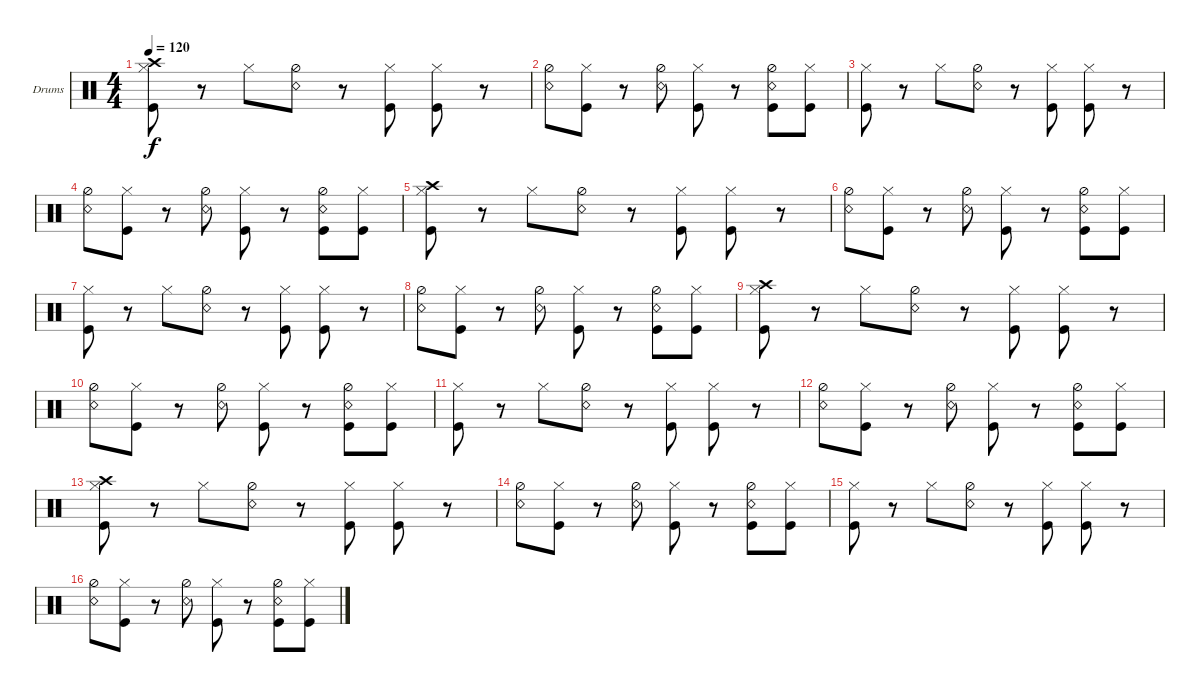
\defaultSystemsLayout 4
\bracketExtendMode groupsimilarinstruments
\firstSystemTrackNameOrientation horizontal
\otherSystemsTrackNameOrientation horizontal
\track ("Drumkit" "Drums") {instrument percussion}
\staff {score}
\articulation defaults
\ts (4 4)
\tempo 120
\clef neutral
\ks c
("Hi-Hat (closed)" "Kick (hit)" "Crash high (hit)").8{dy f} r.8 "Hi-Hat (closed)".8 ("Hi-Hat (half)" "Snare (rim shot)").8 r.8 ("Hi-Hat (closed)" "Kick (hit)").8 ("Hi-Hat (closed)" "Kick (hit)").8 r.8 |
("Hi-Hat (half)" "Snare (rim shot)").8 ("Hi-Hat (closed)" "Kick (hit)").8 r.8 ("Hi-Hat (half)" "Snare (rim shot)").8 ("Hi-Hat (closed)" "Kick (hit)").8 r.8 ("Hi-Hat (half)" "Snare (rim shot)" "Kick (hit)").8 ("Hi-Hat (closed)" "Kick (hit)").8 |
("Hi-Hat (closed)" "Kick (hit)").8 r.8 "Hi-Hat (closed)".8 ("Hi-Hat (half)" "Snare (rim shot)").8 r.8 ("Hi-Hat (closed)" "Kick (hit)").8 ("Hi-Hat (closed)" "Kick (hit)").8 r.8 |
("Hi-Hat (half)" "Snare (rim shot)").8 ("Hi-Hat (closed)" "Kick (hit)").8 r.8 ("Hi-Hat (half)" "Snare (rim shot)").8 ("Hi-Hat (closed)" "Kick (hit)").8 r.8 ("Hi-Hat (half)" "Snare (rim shot)" "Kick (hit)").8 ("Hi-Hat (closed)" "Kick (hit)").8 |
("Hi-Hat (closed)" "Kick (hit)" "Crash high (hit)").8 r.8 "Hi-Hat (closed)".8 ("Hi-Hat (half)" "Snare (rim shot)").8 r.8 ("Hi-Hat (closed)" "Kick (hit)").8 ("Hi-Hat (closed)" "Kick (hit)").8 r.8 |
("Hi-Hat (half)" "Snare (rim shot)").8 ("Hi-Hat (closed)" "Kick (hit)").8 r.8 ("Hi-Hat (half)" "Snare (rim shot)").8 ("Hi-Hat (closed)" "Kick (hit)").8 r.8 ("Hi-Hat (half)" "Snare (rim shot)" "Kick (hit)").8 ("Hi-Hat (closed)" "Kick (hit)").8 |
("Hi-Hat (closed)" "Kick (hit)").8 r.8 "Hi-Hat (closed)".8 ("Hi-Hat (half)" "Snare (rim shot)").8 r.8 ("Hi-Hat (closed)" "Kick (hit)").8 ("Hi-Hat (closed)" "Kick (hit)").8 r.8 |
("Hi-Hat (half)" "Snare (rim shot)").8 ("Hi-Hat (closed)" "Kick (hit)").8 r.8 ("Hi-Hat (half)" "Snare (rim shot)").8 ("Hi-Hat (closed)" "Kick (hit)").8 r.8 ("Hi-Hat (half)" "Snare (rim shot)" "Kick (hit)").8 ("Hi-Hat (closed)" "Kick (hit)").8 |
("Hi-Hat (closed)" "Kick (hit)" "Crash high (hit)").8 r.8 "Hi-Hat (closed)".8 ("Hi-Hat (half)" "Snare (rim shot)").8 r.8 ("Hi-Hat (closed)" "Kick (hit)").8 ("Hi-Hat (closed)" "Kick (hit)").8 r.8 |
("Hi-Hat (half)" "Snare (rim shot)").8 ("Hi-Hat (closed)" "Kick (hit)").8 r.8 ("Hi-Hat (half)" "Snare (rim shot)").8 ("Hi-Hat (closed)" "Kick (hit)").8 r.8 ("Hi-Hat (half)" "Snare (rim shot)" "Kick (hit)").8 ("Hi-Hat (closed)" "Kick (hit)").8 |
("Hi-Hat (closed)" "Kick (hit)").8 r.8 "Hi-Hat (closed)".8 ("Hi-Hat (half)" "Snare (rim shot)").8 r.8 ("Hi-Hat (closed)" "Kick (hit)").8 ("Hi-Hat (closed)" "Kick (hit)").8 r.8 |
("Hi-Hat (half)" "Snare (rim shot)").8 ("Hi-Hat (closed)" "Kick (hit)").8 r.8 ("Hi-Hat (half)" "Snare (rim shot)").8 ("Hi-Hat (closed)" "Kick (hit)").8 r.8 ("Hi-Hat (half)" "Snare (rim shot)" "Kick (hit)").8 ("Hi-Hat (closed)" "Kick (hit)").8 |
("Hi-Hat (closed)" "Kick (hit)" "Crash high (hit)").8 r.8 "Hi-Hat (closed)".8 ("Hi-Hat (half)" "Snare (rim shot)").8 r.8 ("Hi-Hat (closed)" "Kick (hit)").8 ("Hi-Hat (closed)" "Kick (hit)").8 r.8 |
("Hi-Hat (half)" "Snare (rim shot)").8 ("Hi-Hat (closed)" "Kick (hit)").8 r.8 ("Hi-Hat (half)" "Snare (rim shot)").8 ("Hi-Hat (closed)" "Kick (hit)").8 r.8 ("Hi-Hat (half)" "Snare (rim shot)" "Kick (hit)").8 ("Hi-Hat (closed)" "Kick (hit)").8 |
("Hi-Hat (closed)" "Kick (hit)").8 r.8 "Hi-Hat (closed)".8 ("Hi-Hat (half)" "Snare (rim shot)").8 r.8 ("Hi-Hat (closed)" "Kick (hit)").8 ("Hi-Hat (closed)" "Kick (hit)").8 r.8 |
("Hi-Hat (half)" "Snare (rim shot)").8 ("Hi-Hat (closed)" "Kick (hit)").8 r.8 ("Hi-Hat (half)" "Snare (rim shot)").8 ("Hi-Hat (closed)" "Kick (hit)").8 r.8 ("Hi-Hat (half)" "Snare (rim shot)" "Kick (hit)").8 ("Hi-Hat (closed)" "Kick (hit)").8
